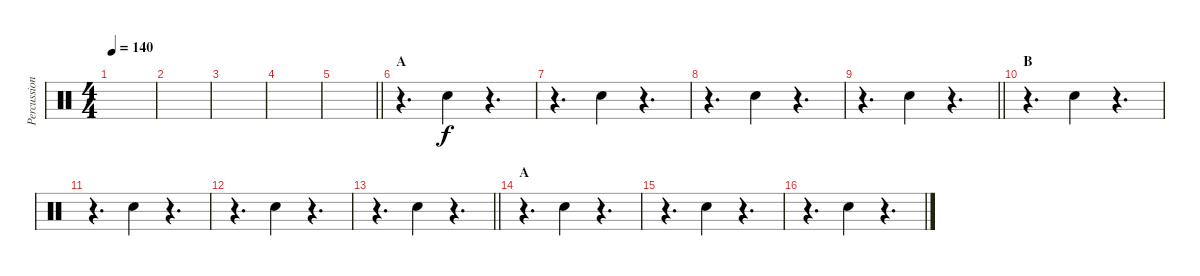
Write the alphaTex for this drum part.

\track ("Percussion" "Percussion") {instrument percussion}
\staff {score}
\articulation defaults
\ts (4 4)
\tempo 140
\clef neutral
\ks c
|
|
|
|
\barLineRight lightlight
|
\section ("" "A")
r.4{d} "Hand Clap (hit)".4 r.4{d} |
r.4{d} "Hand Clap (hit)".4 r.4{d} |
r.4{d} "Hand Clap (hit)".4 r.4{d} |
\barLineRight lightlight
r.4{d} "Hand Clap (hit)".4 r.4{d} |
\section ("" "B")
r.4{d} "Hand Clap (hit)".4 r.4{d} |
r.4{d} "Hand Clap (hit)".4 r.4{d} |
r.4{d} "Hand Clap (hit)".4 r.4{d} |
\barLineRight lightlight
r.4{d} "Hand Clap (hit)".4 r.4{d} |
\section ("" "A")
r.4{d} "Hand Clap (hit)".4 r.4{d} |
r.4{d} "Hand Clap (hit)".4 r.4{d} |
r.4{d} "Hand Clap (hit)".4 r.4{d}
